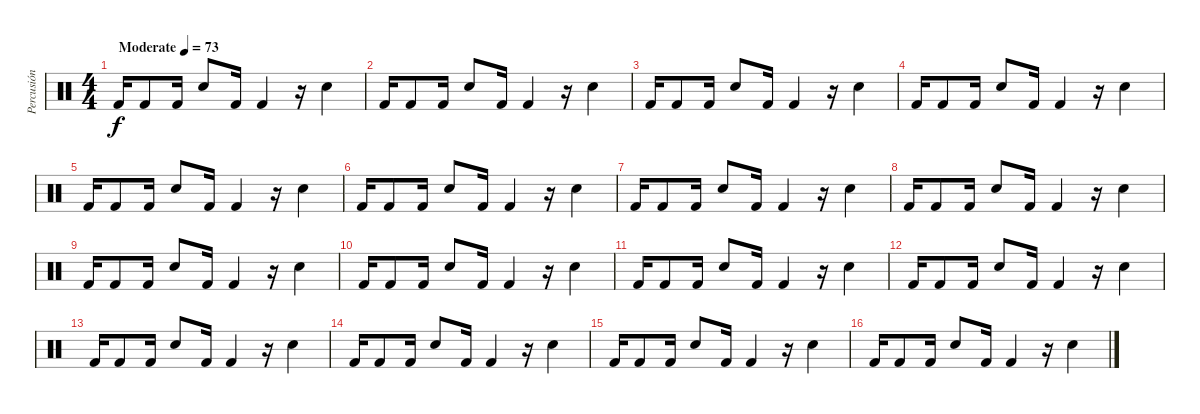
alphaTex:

\track ("Percusión" "Percusión") {instrument percussion}
\staff {score}
\articulation defaults
\ts (4 4)
\tempo (73 "Moderate")
\clef neutral
\ks c "Kick (hit) 2".16{dy f} "Kick (hit) 2".8 "Kick (hit) 2".16 "Snare (hit) 2".8 "Kick (hit) 2".16 "Kick (hit) 2".4
r.16 "Snare (hit) 2".4 |
"Kick (hit) 2".16 "Kick (hit) 2".8 "Kick (hit) 2".16 "Snare (hit) 2".8 "Kick (hit) 2".16 "Kick (hit) 2".4 r.16 "Snare (hit) 2".4 |
"Kick (hit) 2".16 "Kick (hit) 2".8 "Kick (hit) 2".16 "Snare (hit) 2".8 "Kick (hit) 2".16 "Kick (hit) 2".4 r.16 "Snare (hit) 2".4 |
"Kick (hit) 2".16 "Kick (hit) 2".8 "Kick (hit) 2".16 "Snare (hit) 2".8 "Kick (hit) 2".16 "Kick (hit) 2".4 r.16 "Snare (hit) 2".4 |
"Kick (hit) 2".16 "Kick (hit) 2".8 "Kick (hit) 2".16 "Snare (hit) 2".8 "Kick (hit) 2".16 "Kick (hit) 2".4 r.16 "Snare (hit) 2".4 |
"Kick (hit) 2".16 "Kick (hit) 2".8 "Kick (hit) 2".16 "Snare (hit) 2".8 "Kick (hit) 2".16 "Kick (hit) 2".4 r.16 "Snare (hit) 2".4 |
"Kick (hit) 2".16 "Kick (hit) 2".8 "Kick (hit) 2".16 "Snare (hit) 2".8 "Kick (hit) 2".16 "Kick (hit) 2".4 r.16 "Snare (hit) 2".4 |
"Kick (hit) 2".16 "Kick (hit) 2".8 "Kick (hit) 2".16 "Snare (hit) 2".8 "Kick (hit) 2".16 "Kick (hit) 2".4 r.16 "Snare (hit) 2".4 |
"Kick (hit) 2".16 "Kick (hit) 2".8 "Kick (hit) 2".16 "Snare (hit) 2".8 "Kick (hit) 2".16 "Kick (hit) 2".4 r.16 "Snare (hit) 2".4 |
"Kick (hit) 2".16 "Kick (hit) 2".8 "Kick (hit) 2".16 "Snare (hit) 2".8 "Kick (hit) 2".16 "Kick (hit) 2".4 r.16 "Snare (hit) 2".4 |
"Kick (hit) 2".16 "Kick (hit) 2".8 "Kick (hit) 2".16 "Snare (hit) 2".8 "Kick (hit) 2".16 "Kick (hit) 2".4 r.16 "Snare (hit) 2".4 |
"Kick (hit) 2".16 "Kick (hit) 2".8 "Kick (hit) 2".16 "Snare (hit) 2".8 "Kick (hit) 2".16 "Kick (hit) 2".4 r.16 "Snare (hit) 2".4 |
"Kick (hit) 2".16 "Kick (hit) 2".8 "Kick (hit) 2".16 "Snare (hit) 2".8 "Kick (hit) 2".16 "Kick (hit) 2".4 r.16 "Snare (hit) 2".4 |
"Kick (hit) 2".16 "Kick (hit) 2".8 "Kick (hit) 2".16 "Snare (hit) 2".8 "Kick (hit) 2".16 "Kick (hit) 2".4 r.16 "Snare (hit) 2".4 |
"Kick (hit) 2".16 "Kick (hit) 2".8 "Kick (hit) 2".16 "Snare (hit) 2".8 "Kick (hit) 2".16 "Kick (hit) 2".4 r.16 "Snare (hit) 2".4 |
"Kick (hit) 2".16 "Kick (hit) 2".8 "Kick (hit) 2".16 "Snare (hit) 2".8 "Kick (hit) 2".16 "Kick (hit) 2".4 r.16 "Snare (hit) 2".4
